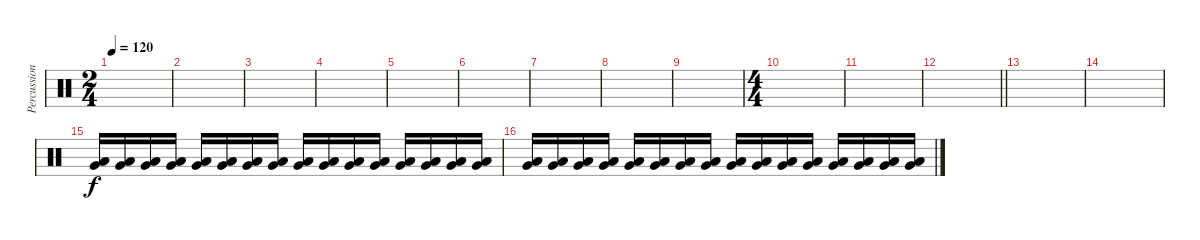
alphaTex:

\track ("Percussion" "Percussion") {instrument percussion}
\staff {score}
\articulation defaults
\ts (2 4)
\tempo 120
\clef neutral
\ks c
|
|
|
|
|
|
|
|
|
\ts (4 4)
|
|
\barLineRight lightlight
|
|
|
("Low Tom (hit)" "Very Low Tom (hit)").16 ("Low Tom (hit)" "Very Low Tom (hit)").16 ("Low Tom (hit)" "Very Low Tom (hit)").16 ("Low Tom (hit)" "Very Low Tom (hit)").16 ("Low Tom (hit)" "Very Low Tom (hit)").16 ("Low Tom (hit)" "Very Low Tom (hit)").16 ("Low Tom (hit)" "Very Low Tom (hit)").16 ("Low Tom (hit)" "Very Low Tom (hit)").16 ("Low Tom (hit)" "Very Low Tom (hit)").16 ("Low Tom (hit)" "Very Low Tom (hit)").16 ("Low Tom (hit)" "Very Low Tom (hit)").16 ("Low Tom (hit)" "Very Low Tom (hit)").16 ("Low Tom (hit)" "Very Low Tom (hit)").16 ("Low Tom (hit)" "Very Low Tom (hit)").16 ("Low Tom (hit)" "Very Low Tom (hit)").16 ("Low Tom (hit)" "Very Low Tom (hit)").16 |
("Low Tom (hit)" "Very Low Tom (hit)").16 ("Low Tom (hit)" "Very Low Tom (hit)").16 ("Low Tom (hit)" "Very Low Tom (hit)").16 ("Low Tom (hit)" "Very Low Tom (hit)").16 ("Low Tom (hit)" "Very Low Tom (hit)").16 ("Low Tom (hit)" "Very Low Tom (hit)").16 ("Low Tom (hit)" "Very Low Tom (hit)").16 ("Low Tom (hit)" "Very Low Tom (hit)").16 ("Low Tom (hit)" "Very Low Tom (hit)").16 ("Low Tom (hit)" "Very Low Tom (hit)").16 ("Low Tom (hit)" "Very Low Tom (hit)").16 ("Low Tom (hit)" "Very Low Tom (hit)").16 ("Low Tom (hit)" "Very Low Tom (hit)").16 ("Low Tom (hit)" "Very Low Tom (hit)").16 ("Low Tom (hit)" "Very Low Tom (hit)").16 ("Low Tom (hit)" "Very Low Tom (hit)").16
